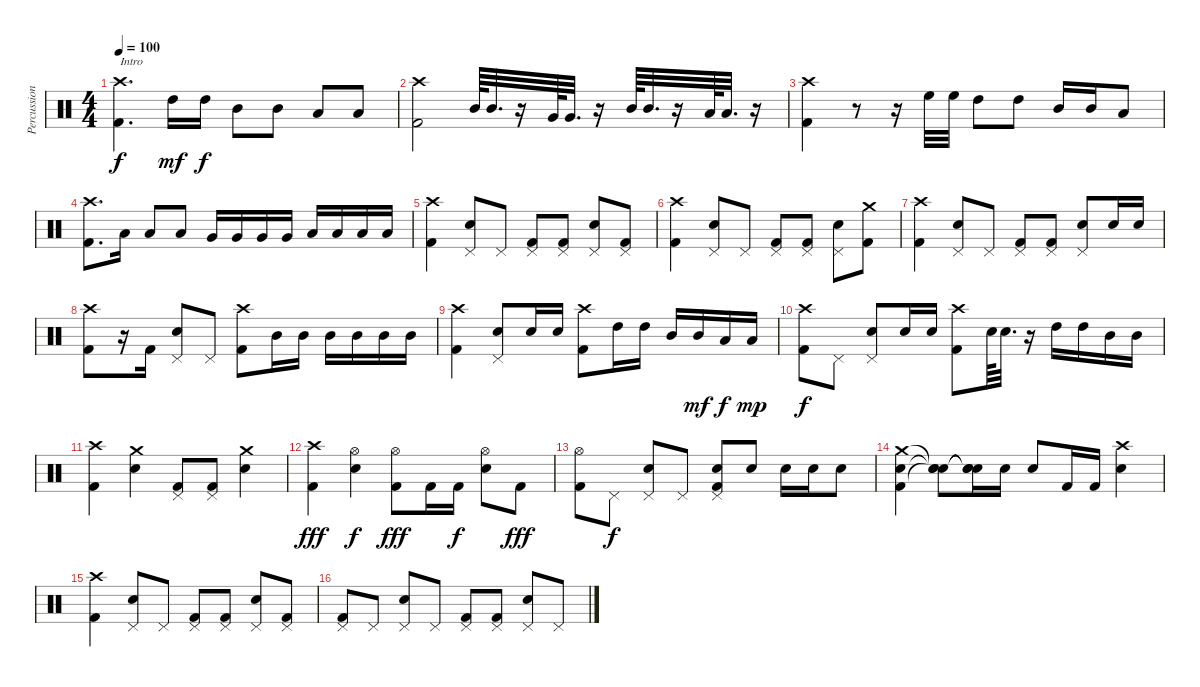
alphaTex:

\track ("Percussion" "Percussion") {instrument percussion}
\staff {score}
\articulation defaults
\ts (4 4)
\tempo 100
\clef neutral
\ks c
("Crash high (hit)" "Kick (hit) 2").4{d txt "Intro" dy f} "High Tom (hit)".16{dy mf} "High Tom (hit)".16{dy f} "Mid Tom (hit)".8 "Mid Tom (hit)".8 "Low Tom (hit)".8 "Low Tom (hit)".8 |
("Crash high (hit)" "Kick (hit) 2").2 "Mid Tom (hit)".64 "Mid Tom (hit)".32{d} r.16 "Very Low Tom (hit)".64 "Very Low Tom (hit)".32{d} r.16 "Mid Tom (hit)".64 "Mid Tom (hit)".32{d} r.16 "Low Tom (hit)".64 "Low Tom (hit)".32{d} r.16 |
("Crash high (hit)" "Kick (hit) 2").4 r.8 r.16 "High Floor Tom (hit)".32 "High Floor Tom (hit)".32 "High Tom (hit)".8 "High Tom (hit)".8 "Mid Tom (hit)".16 "Mid Tom (hit)".16 "Low Tom (hit)".8 |
("Crash high (hit)" "Kick (hit) 2").8{d} "Low Tom (hit)".16 "Low Tom (hit)".8 "Low Tom (hit)".8 "Very Low Tom (hit)".16 "Very Low Tom (hit)".16 "Very Low Tom (hit)".16 "Very Low Tom (hit)".16 "Low Floor Tom (hit)".16 "Low Floor Tom (hit)".16 "Low Floor Tom (hit)".16 "Low Floor Tom (hit)".16 |
("Crash high (hit)" "Kick (hit) 2").4 ("Pedal Hi-Hat (hit)" "Snare (hit) 2").8 "Pedal Hi-Hat (hit)".8 ("Pedal Hi-Hat (hit)" "Kick (hit) 2").8 ("Pedal Hi-Hat (hit)" "Kick (hit) 2").8 ("Pedal Hi-Hat (hit)" "Snare (hit) 2").8 ("Pedal Hi-Hat (hit)" "Kick (hit) 2").8 |
("Crash high (hit)" "Kick (hit) 2").4 ("Pedal Hi-Hat (hit)" "Snare (hit) 2").8 "Pedal Hi-Hat (hit)".8 ("Pedal Hi-Hat (hit)" "Kick (hit) 2").8 ("Pedal Hi-Hat (hit)" "Kick (hit) 2").8 ("Pedal Hi-Hat (hit)" "Snare (hit) 2").8 ("Crash medium (hit)" "Kick (hit) 2").8 |
("Crash high (hit)" "Kick (hit) 2").4 ("Pedal Hi-Hat (hit)" "Snare (hit) 2").8 "Pedal Hi-Hat (hit)".8 ("Pedal Hi-Hat (hit)" "Kick (hit) 2").8 ("Pedal Hi-Hat (hit)" "Kick (hit) 2").8 ("Pedal Hi-Hat (hit)" "Snare (hit) 2").8 "Snare (hit) 2".16 "Snare (hit) 2".16 |
("Crash high (hit)" "Kick (hit) 2").8 r.16 "Kick (hit) 2".16 ("Pedal Hi-Hat (hit)" "Snare (hit) 2").8 "Pedal Hi-Hat (hit)".8 ("Crash high (hit)" "Kick (hit) 2").8 "Mid Tom (hit)".16 "Mid Tom (hit)".16 "Mid Tom (hit)".16 "Mid Tom (hit)".16 "Mid Tom (hit)".16 "Mid Tom (hit)".16 |
("Crash high (hit)" "Kick (hit) 2").4 ("Pedal Hi-Hat (hit)" "Snare (hit) 2").8 "Snare (hit) 2".16 "Snare (hit) 2".16 ("Crash high (hit)" "Kick (hit) 2").8 "High Tom (hit)".16 "High Tom (hit)".16 "Mid Tom (hit)".16 "Mid Tom (hit)".16{dy mf} "Low Tom (hit)".16{dy f} "Low Tom (hit)".16{dy mp} |
("Crash high (hit)" "Kick (hit) 2").8{dy f} "Pedal Hi-Hat (hit)".8 ("Pedal Hi-Hat (hit)" "Snare (hit) 2").8 "Snare (hit) 2".16 "Snare (hit) 2".16 ("Crash high (hit)" "Kick (hit) 2").8 "Snare (hit) 2".64 "Snare (hit) 2".32{d} r.16 "High Tom (hit)".16 "High Tom (hit)".16 "Mid Tom (hit)".16 "Mid Tom (hit)".16 |
("Crash high (hit)" "Kick (hit) 2").4 ("Crash medium (hit)" "Snare (hit) 2").4 ("Pedal Hi-Hat (hit)" "Kick (hit) 2").8 ("Pedal Hi-Hat (hit)" "Kick (hit) 2").8 ("Crash medium (hit)" "Snare (hit) 2").4 |
("Crash high (hit)" "Kick (hit) 2").4{dy fff} ("Hi-Hat (open)" "Snare (hit) 2").4{dy f} ("Hi-Hat (open)" "Kick (hit) 2").8{dy fff} "Kick (hit) 2".16 "Kick (hit) 2".16{dy f} ("Hi-Hat (open)" "Snare (hit) 2").8 "Kick (hit) 2".8{dy fff} |
("Hi-Hat (open)" "Kick (hit) 2").8 "Pedal Hi-Hat (hit)".8{dy f} ("Pedal Hi-Hat (hit)" "Snare (hit) 2").8 "Pedal Hi-Hat (hit)".8 ("Pedal Hi-Hat (hit)" "Snare (hit) 2" "Kick (hit) 2").8 "Snare (hit) 2".8 "Snare (hit) 2".16 "Snare (hit) 2".16 "Snare (hit) 2".8 |
("Crash medium (hit)" "Snare (hit) 2" "Kick (hit) 2").4 ("Snare (hit)"{t} "Snare (hit)"{t} "Snare (hit)"{t}).8 ("Snare (hit)"{t} "Snare (hit)"{t} "Snare (hit)"{t}).16 "Snare (hit) 2".16 "Snare (hit) 2".8 "Kick (hit) 2".16 "Kick (hit) 2".16 ("Snare (hit) 2" "Crash high (hit)").4 |
("Crash high (hit)" "Kick (hit) 2").4 ("Pedal Hi-Hat (hit)" "Snare (hit) 2").8 "Pedal Hi-Hat (hit)".8 ("Pedal Hi-Hat (hit)" "Kick (hit) 2").8 ("Pedal Hi-Hat (hit)" "Kick (hit) 2").8 ("Pedal Hi-Hat (hit)" "Snare (hit) 2").8 ("Pedal Hi-Hat (hit)" "Kick (hit) 2").8 |
("Pedal Hi-Hat (hit)" "Kick (hit) 2").8 "Pedal Hi-Hat (hit)".8 ("Pedal Hi-Hat (hit)" "Snare (hit) 2").8 "Pedal Hi-Hat (hit)".8 ("Pedal Hi-Hat (hit)" "Kick (hit) 2").8 ("Pedal Hi-Hat (hit)" "Kick (hit) 2").8 ("Pedal Hi-Hat (hit)" "Snare (hit) 2").8 "Pedal Hi-Hat (hit)".8
